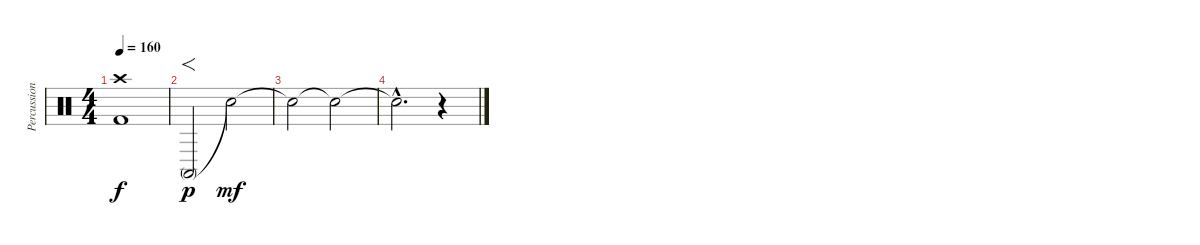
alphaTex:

\track ("Percussion" "Percussion") {instrument percussion}
\staff {score}
\articulation defaults
\ts (4 4)
\section ("" "")
\tempo 160
\clef neutral
\ks c
("Crash high (hit)" "Kick (hit) 2").1{dy f} |
"Conga high (mute)".2{f dy p} "Snare (hit)"{t}.2{dy mf volume 11} |
"Snare (hit)"{t}.2{volume 8} "Snare (hit)"{t}.2{volume 5} |
"Snare (hit)"{hac t}.2{d volume 0} r.4
